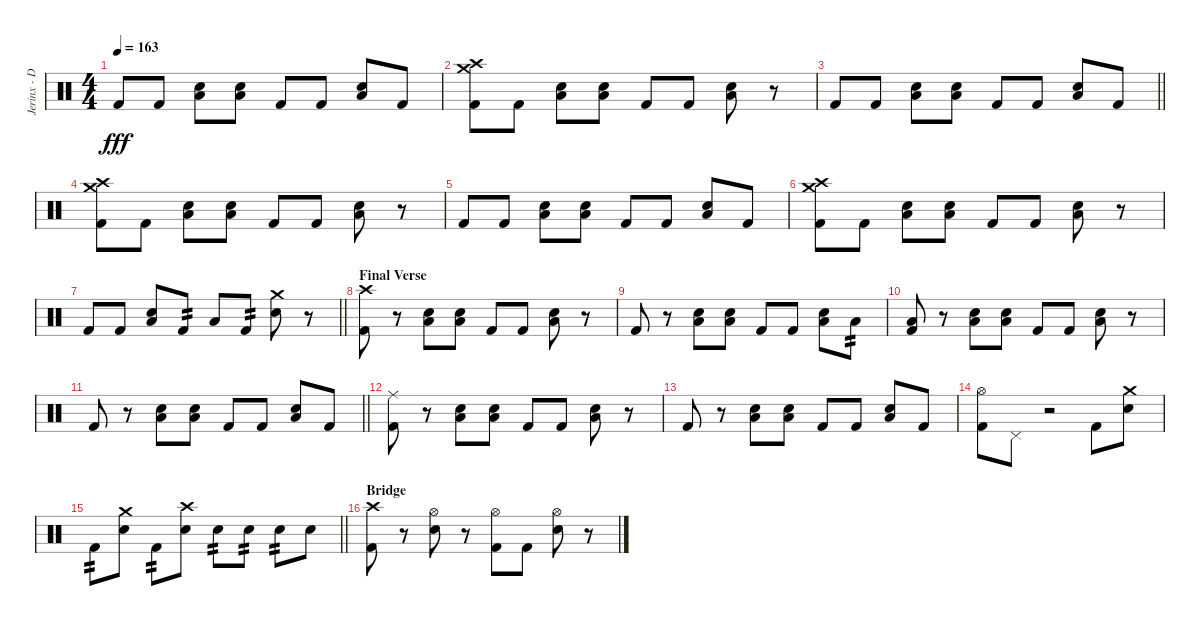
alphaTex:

\track ("Jerinx - Drum" "Jerinx - D") {instrument percussion}
\staff {score}
\articulation defaults
\ts (4 4)
\tempo 163
\clef neutral
\ks c "Kick (hit) 2".8{dy fff} "Kick (hit) 2".8
("Snare (hit) 2" "Low Floor Tom (hit)").8 ("Snare (hit) 2" "Low Floor Tom (hit)").8 "Kick (hit) 2".8 "Kick (hit) 2".8 ("Snare (hit) 2" "Low Floor Tom (hit)").8 "Kick (hit) 2".8 |
("Kick (hit) 2" "Crash medium (hit)" "Crash high (hit)").8 "Kick (hit) 2".8 ("Snare (hit) 2" "Low Floor Tom (hit)").8 ("Snare (hit) 2" "Low Floor Tom (hit)").8 "Kick (hit) 2".8 "Kick (hit) 2".8 ("Snare (hit) 2" "Low Floor Tom (hit)").8 r.8 |
\barLineRight lightlight "Kick (hit) 2".8 "Kick (hit) 2".8
("Snare (hit) 2" "Low Floor Tom (hit)").8 ("Snare (hit) 2" "Low Floor Tom (hit)").8 "Kick (hit) 2".8 "Kick (hit) 2".8 ("Snare (hit) 2" "Low Floor Tom (hit)").8 "Kick (hit) 2".8 |
("Kick (hit) 2" "Crash medium (hit)" "Crash high (hit)").8 "Kick (hit) 2".8 ("Snare (hit) 2" "Low Floor Tom (hit)").8 ("Snare (hit) 2" "Low Floor Tom (hit)").8 "Kick (hit) 2".8 "Kick (hit) 2".8 ("Snare (hit) 2" "Low Floor Tom (hit)").8 r.8 |
"Kick (hit) 2".8 "Kick (hit) 2".8 ("Snare (hit) 2" "Low Floor Tom (hit)").8 ("Snare (hit) 2" "Low Floor Tom (hit)").8 "Kick (hit) 2".8 "Kick (hit) 2".8 ("Snare (hit) 2" "Low Floor Tom (hit)").8 "Kick (hit) 2".8 |
("Kick (hit) 2" "Crash medium (hit)" "Crash high (hit)").8 "Kick (hit) 2".8 ("Snare (hit) 2" "Low Floor Tom (hit)").8 ("Snare (hit) 2" "Low Floor Tom (hit)").8 "Kick (hit) 2".8 "Kick (hit) 2".8 ("Snare (hit) 2" "Low Floor Tom (hit)").8 r.8 |
\barLineRight lightlight "Kick (hit) 2".8 "Kick (hit) 2".8
("Snare (hit) 2" "Low Floor Tom (hit)").8 "Kick (hit) 2".8{tp 2} "Low Tom (hit)".8 "Kick (hit) 2".8{tp 2} ("Snare (hit) 2" "Crash medium (hit)").8 r.8 |
\section ("" "Final Verse")
("Kick (hit) 2" "Crash high (hit)").8 r.8 ("Snare (hit) 2" "Low Floor Tom (hit)").8 ("Snare (hit) 2" "Low Floor Tom (hit)").8 "Kick (hit) 2".8 "Kick (hit) 2".8 ("Snare (hit) 2" "Low Floor Tom (hit)").8 r.8 |
"Kick (hit) 2".8 r.8 ("Snare (hit) 2" "Low Floor Tom (hit)").8 ("Snare (hit) 2" "Low Floor Tom (hit)").8 "Kick (hit) 2".8 "Kick (hit) 2".8 ("Snare (hit) 2" "Low Floor Tom (hit)").8 "Low Floor Tom (hit)".8{tp 2} |
("Kick (hit) 2" "Low Floor Tom (hit)").8 r.8 ("Snare (hit) 2" "Low Floor Tom (hit)").8 ("Snare (hit) 2" "Low Floor Tom (hit)").8 "Kick (hit) 2".8 "Kick (hit) 2".8 ("Snare (hit) 2" "Low Floor Tom (hit)").8 r.8 |
\barLineRight lightlight "Kick (hit) 2".8
r.8 ("Snare (hit) 2" "Low Floor Tom (hit)").8 ("Snare (hit) 2" "Low Floor Tom (hit)").8 "Kick (hit) 2".8 "Kick (hit) 2".8 ("Snare (hit) 2" "Low Floor Tom (hit)").8 "Kick (hit) 2".8 |
("Kick (hit) 2" "Ride (middle)").8 r.8 ("Snare (hit) 2" "Low Floor Tom (hit)").8 ("Snare (hit) 2" "Low Floor Tom (hit)").8 "Kick (hit) 2".8 "Kick (hit) 2".8 ("Snare (hit) 2" "Low Floor Tom (hit)").8 r.8 |
"Kick (hit) 2".8 r.8 ("Snare (hit) 2" "Low Floor Tom (hit)").8 ("Snare (hit) 2" "Low Floor Tom (hit)").8 "Kick (hit) 2".8 "Kick (hit) 2".8 ("Snare (hit) 2" "Low Floor Tom (hit)").8 "Kick (hit) 2".8 |
("Hi-Hat (open)" "Kick (hit) 2").8 "Pedal Hi-Hat (hit)".8 r.2 "Kick (hit) 2".8 ("Snare (hit) 2" "Crash medium (hit)").8 |
\barLineRight lightlight "Kick (hit) 2".8{tp 2}
("Snare (hit) 2" "Crash medium (hit)").8 "Kick (hit) 2".8{tp 2} ("Snare (hit) 2" "Crash high (hit)").8 "Snare (hit) 2".8{tp 2} "Snare (hit) 2".8{tp 2} "Snare (hit) 2".8{tp 2} "Snare (hit) 2".8 |
\section ("" "Bridge")
("Kick (hit) 2" "Crash high (hit)").8 r.8 ("Hi-Hat (open)" "Snare (hit) 2").8 r.8 ("Hi-Hat (open)" "Kick (hit) 2").8 "Kick (hit) 2".8 ("Hi-Hat (open)" "Snare (hit) 2").8 r.8
